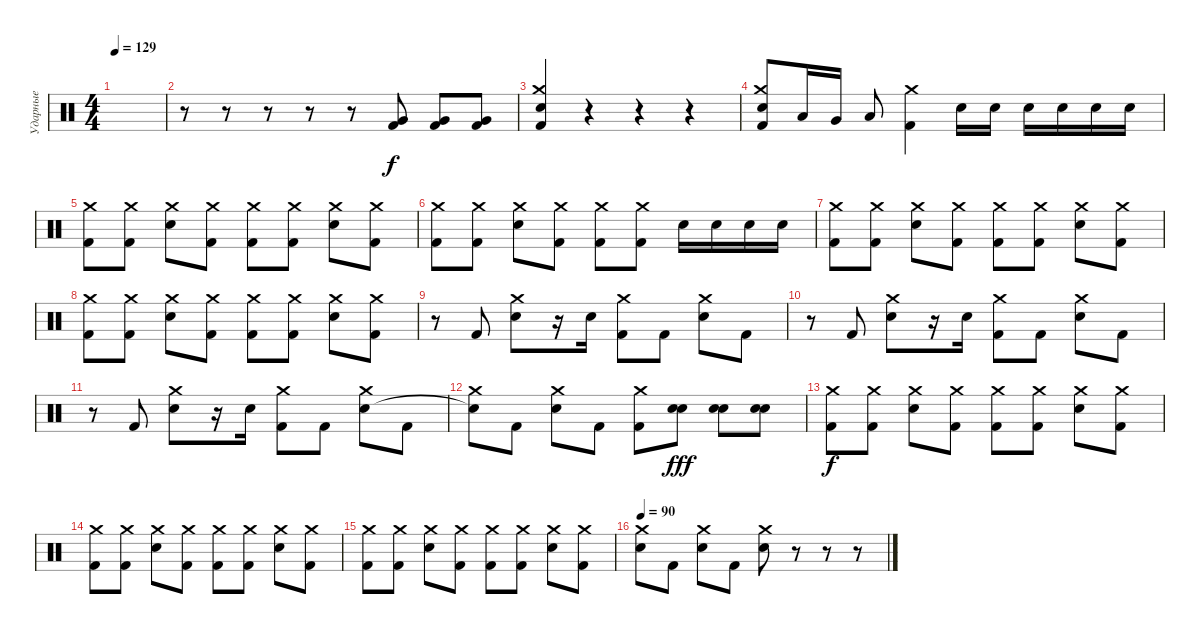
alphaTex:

\track ("Ударные" "Ударные") {instrument percussion}
\staff {score}
\articulation defaults
\ts (4 4)
\tempo 129
\clef neutral
\ks c
|
r.8 r.8 r.8 r.8 r.8 ("Very Low Tom (hit)" "Kick (hit) 2").8{dy f} ("Very Low Tom (hit)" "Kick (hit) 2").8 ("Very Low Tom (hit)" "Kick (hit) 2").8 |
("Crash medium (hit)" "Electric Snare (hit)" "Kick (hit) 2").4 r.4 r.4 r.4 |
("Crash medium (hit)" "Electric Snare (hit)" "Kick (hit) 2").8 "Low Tom (hit)".16 "Very Low Tom (hit)".16 "Low Floor Tom (hit)".8 ("Crash medium (hit)" "Kick (hit) 2").4 "Electric Snare (hit)".16 "Electric Snare (hit)".16 "Electric Snare (hit)".16 "Electric Snare (hit)".16 "Electric Snare (hit)".16 "Electric Snare (hit)".16 |
("Crash medium (hit)" "Kick (hit) 2").8 ("Crash medium (hit)" "Kick (hit) 2").8 ("Crash medium (hit)" "Electric Snare (hit)").8 ("Crash medium (hit)" "Kick (hit) 2").8 ("Crash medium (hit)" "Kick (hit) 2").8 ("Crash medium (hit)" "Kick (hit) 2").8 ("Crash medium (hit)" "Electric Snare (hit)").8 ("Crash medium (hit)" "Kick (hit) 2").8 |
("Crash medium (hit)" "Kick (hit) 2").8 ("Crash medium (hit)" "Kick (hit) 2").8 ("Crash medium (hit)" "Electric Snare (hit)").8 ("Crash medium (hit)" "Kick (hit) 2").8 ("Crash medium (hit)" "Kick (hit) 2").8 ("Crash medium (hit)" "Kick (hit) 2").8 "Electric Snare (hit)".16 "Electric Snare (hit)".16 "Electric Snare (hit)".16 "Electric Snare (hit)".16 |
("Crash medium (hit)" "Kick (hit) 2").8 ("Crash medium (hit)" "Kick (hit) 2").8 ("Crash medium (hit)" "Electric Snare (hit)").8 ("Crash medium (hit)" "Kick (hit) 2").8 ("Crash medium (hit)" "Kick (hit) 2").8 ("Crash medium (hit)" "Kick (hit) 2").8 ("Crash medium (hit)" "Electric Snare (hit)").8 ("Crash medium (hit)" "Kick (hit) 2").8 |
("Crash medium (hit)" "Kick (hit) 2").8 ("Crash medium (hit)" "Kick (hit) 2").8 ("Crash medium (hit)" "Electric Snare (hit)").8 ("Crash medium (hit)" "Kick (hit) 2").8 ("Crash medium (hit)" "Kick (hit) 2").8 ("Crash medium (hit)" "Kick (hit) 2").8 ("Crash medium (hit)" "Electric Snare (hit)").8 ("Crash medium (hit)" "Kick (hit) 2").8 |
r.8 "Kick (hit) 2".8 ("Crash medium (hit)" "Electric Snare (hit)").8 r.16 "Electric Snare (hit)".16 ("Crash medium (hit)" "Kick (hit) 2").8 "Kick (hit) 2".8 ("Crash medium (hit)" "Electric Snare (hit)").8 "Kick (hit) 2".8 |
r.8 "Kick (hit) 2".8 ("Crash medium (hit)" "Electric Snare (hit)").8 r.16 "Electric Snare (hit)".16 ("Crash medium (hit)" "Kick (hit) 2").8 "Kick (hit) 2".8 ("Crash medium (hit)" "Electric Snare (hit)").8 "Kick (hit) 2".8 |
r.8 "Kick (hit) 2".8 ("Crash medium (hit)" "Electric Snare (hit)").8 r.16 "Electric Snare (hit)".16 ("Crash medium (hit)" "Kick (hit) 2").8 "Kick (hit) 2".8 ("Crash medium (hit)" "Electric Snare (hit)").8 "Kick (hit) 2".8 |
("Crash medium (hit)" "Snare (hit)"{t}).8 "Kick (hit) 2".8 ("Crash medium (hit)" "Electric Snare (hit)").8 "Kick (hit) 2".8 ("Crash medium (hit)" "Kick (hit) 2").8 ("Hand Clap (hit)" "Electric Snare (hit)").8{dy fff} ("Hand Clap (hit)" "Electric Snare (hit)").8 ("Hand Clap (hit)" "Electric Snare (hit)").8 |
("Crash medium (hit)" "Kick (hit) 2").8{dy f} ("Crash medium (hit)" "Kick (hit) 2").8 ("Crash medium (hit)" "Electric Snare (hit)").8 ("Crash medium (hit)" "Kick (hit) 2").8 ("Crash medium (hit)" "Kick (hit) 2").8 ("Crash medium (hit)" "Kick (hit) 2").8 ("Crash medium (hit)" "Electric Snare (hit)").8 ("Crash medium (hit)" "Kick (hit) 2").8 |
("Crash medium (hit)" "Kick (hit) 2").8 ("Crash medium (hit)" "Kick (hit) 2").8 ("Crash medium (hit)" "Electric Snare (hit)").8 ("Crash medium (hit)" "Kick (hit) 2").8 ("Crash medium (hit)" "Kick (hit) 2").8 ("Crash medium (hit)" "Kick (hit) 2").8 ("Crash medium (hit)" "Electric Snare (hit)").8 ("Crash medium (hit)" "Kick (hit) 2").8 |
("Crash medium (hit)" "Kick (hit) 2").8 ("Crash medium (hit)" "Kick (hit) 2").8 ("Crash medium (hit)" "Electric Snare (hit)").8 ("Crash medium (hit)" "Kick (hit) 2").8 ("Crash medium (hit)" "Kick (hit) 2").8 ("Crash medium (hit)" "Kick (hit) 2").8 ("Crash medium (hit)" "Electric Snare (hit)").8 ("Crash medium (hit)" "Kick (hit) 2").8 |
\tempo 90
("Crash medium (hit)" "Electric Snare (hit)").8 "Kick (hit) 2".8 ("Crash medium (hit)" "Electric Snare (hit)").8 "Kick (hit) 2".8 ("Crash medium (hit)" "Electric Snare (hit)").8 r.8 r.8 r.8
